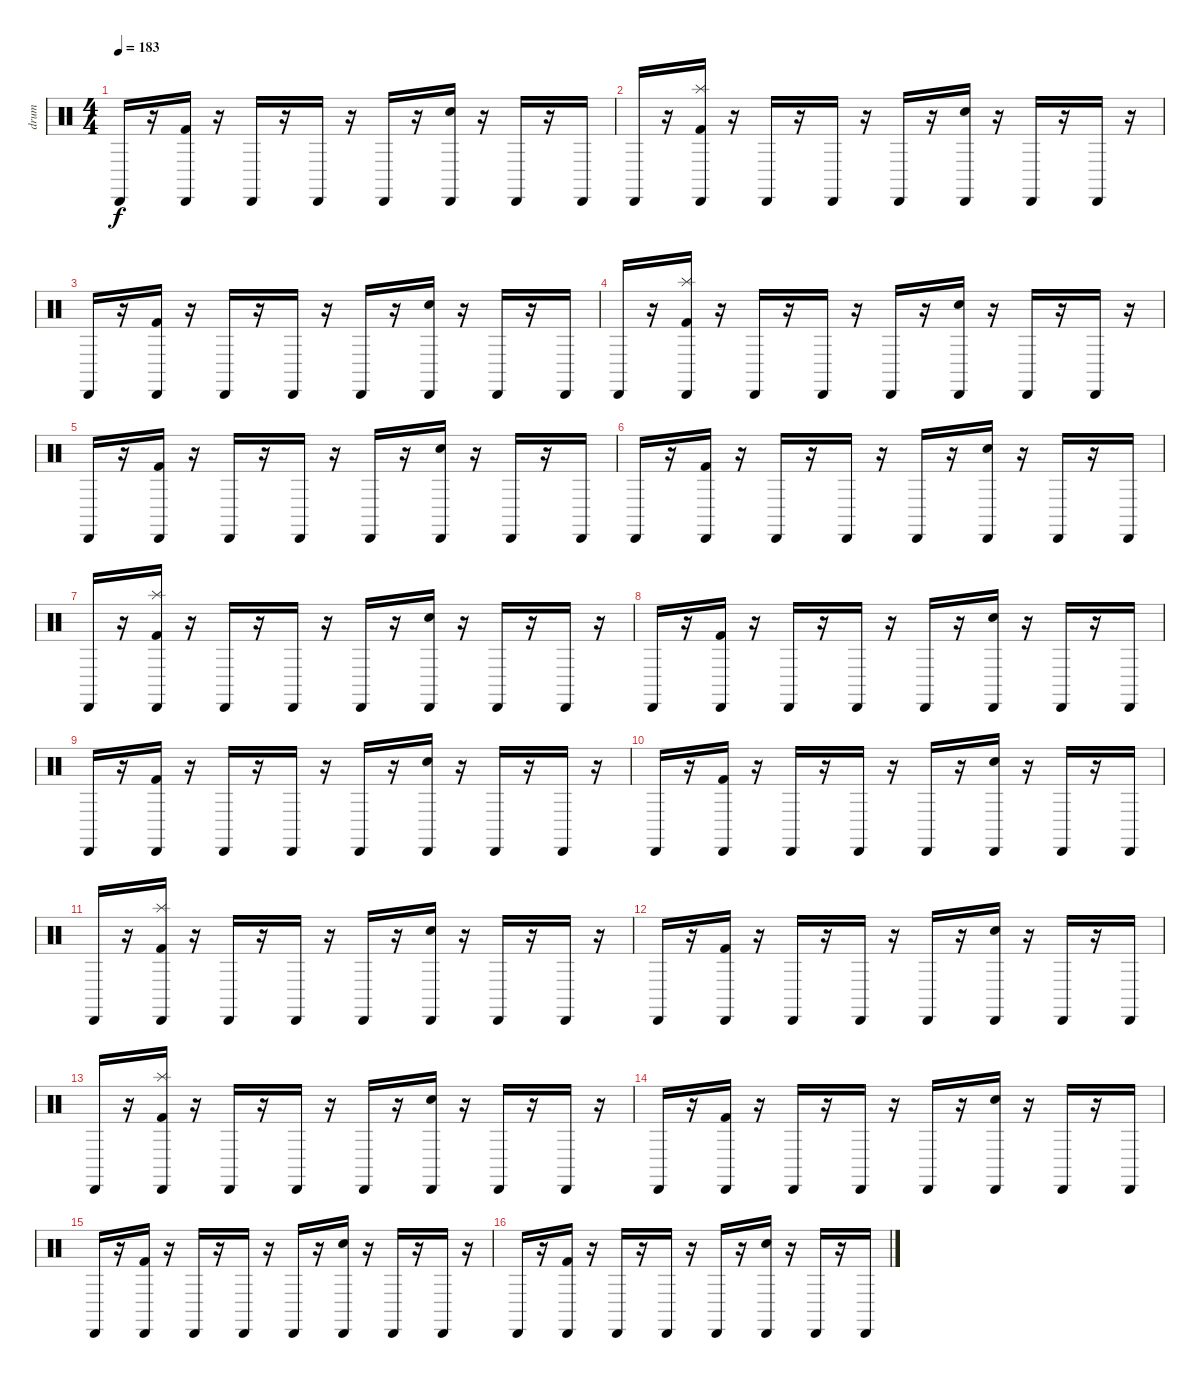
\track ("drum" "drum") {instrument percussion}
\staff {score}
\articulation defaults
\ts (4 4)
\tempo 183
\clef neutral
\ks c "Cabasa (hit)".16{dy f}
r.16 ("Cabasa (hit)" "Kick (hit) 2").16 r.16 "Cabasa (hit)".16 r.16 "Cabasa (hit)".16 r.16 "Cabasa (hit)".16 r.16 ("Cabasa (hit)" "Snare (hit) 2").16 r.16 "Cabasa (hit)".16 r.16 "Cabasa (hit)".16 |
"Cabasa (hit)".16 r.16 ("Cabasa (hit)" "Kick (hit) 2" "Splash (hit)").16 r.16 "Cabasa (hit)".16 r.16 "Cabasa (hit)".16 r.16 "Cabasa (hit)".16 r.16 ("Cabasa (hit)" "Snare (hit) 2").16 r.16 "Cabasa (hit)".16 r.16 "Cabasa (hit)".16 r.16 |
"Cabasa (hit)".16 r.16 ("Cabasa (hit)" "Kick (hit) 2").16 r.16 "Cabasa (hit)".16 r.16 "Cabasa (hit)".16 r.16 "Cabasa (hit)".16 r.16 ("Cabasa (hit)" "Snare (hit) 2").16 r.16 "Cabasa (hit)".16 r.16 "Cabasa (hit)".16 |
"Cabasa (hit)".16 r.16 ("Cabasa (hit)" "Kick (hit) 2" "Splash (hit)").16 r.16 "Cabasa (hit)".16 r.16 "Cabasa (hit)".16 r.16 "Cabasa (hit)".16 r.16 ("Cabasa (hit)" "Snare (hit) 2").16 r.16 "Cabasa (hit)".16 r.16 "Cabasa (hit)".16 r.16 |
"Cabasa (hit)".16 r.16 ("Cabasa (hit)" "Kick (hit) 2").16 r.16 "Cabasa (hit)".16 r.16 "Cabasa (hit)".16 r.16 "Cabasa (hit)".16 r.16 ("Cabasa (hit)" "Snare (hit) 2").16 r.16 "Cabasa (hit)".16 r.16 "Cabasa (hit)".16 |
"Cabasa (hit)".16 r.16 ("Cabasa (hit)" "Kick (hit) 2").16 r.16 "Cabasa (hit)".16 r.16 "Cabasa (hit)".16 r.16 "Cabasa (hit)".16 r.16 ("Cabasa (hit)" "Snare (hit) 2").16 r.16 "Cabasa (hit)".16 r.16 "Cabasa (hit)".16 |
"Cabasa (hit)".16 r.16 ("Cabasa (hit)" "Kick (hit) 2" "Splash (hit)").16 r.16 "Cabasa (hit)".16 r.16 "Cabasa (hit)".16 r.16 "Cabasa (hit)".16 r.16 ("Cabasa (hit)" "Snare (hit) 2").16 r.16 "Cabasa (hit)".16 r.16 "Cabasa (hit)".16 r.16 |
"Cabasa (hit)".16 r.16 ("Cabasa (hit)" "Kick (hit) 2").16 r.16 "Cabasa (hit)".16 r.16 "Cabasa (hit)".16 r.16 "Cabasa (hit)".16 r.16 ("Cabasa (hit)" "Snare (hit) 2").16 r.16 "Cabasa (hit)".16 r.16 "Cabasa (hit)".16 |
"Cabasa (hit)".16 r.16 ("Cabasa (hit)" "Kick (hit) 2").16 r.16 "Cabasa (hit)".16 r.16 "Cabasa (hit)".16 r.16 "Cabasa (hit)".16 r.16 ("Cabasa (hit)" "Snare (hit) 2").16 r.16 "Cabasa (hit)".16 r.16 "Cabasa (hit)".16 r.16 |
"Cabasa (hit)".16 r.16 ("Cabasa (hit)" "Kick (hit) 2").16 r.16 "Cabasa (hit)".16 r.16 "Cabasa (hit)".16 r.16 "Cabasa (hit)".16 r.16 ("Cabasa (hit)" "Snare (hit) 2").16 r.16 "Cabasa (hit)".16 r.16 "Cabasa (hit)".16 |
"Cabasa (hit)".16 r.16 ("Cabasa (hit)" "Kick (hit) 2" "Splash (hit)").16 r.16 "Cabasa (hit)".16 r.16 "Cabasa (hit)".16 r.16 "Cabasa (hit)".16 r.16 ("Cabasa (hit)" "Snare (hit) 2").16 r.16 "Cabasa (hit)".16 r.16 "Cabasa (hit)".16 r.16 |
"Cabasa (hit)".16 r.16 ("Cabasa (hit)" "Kick (hit) 2").16 r.16 "Cabasa (hit)".16 r.16 "Cabasa (hit)".16 r.16 "Cabasa (hit)".16 r.16 ("Cabasa (hit)" "Snare (hit) 2").16 r.16 "Cabasa (hit)".16 r.16 "Cabasa (hit)".16 |
"Cabasa (hit)".16 r.16 ("Cabasa (hit)" "Kick (hit) 2" "Splash (hit)").16 r.16 "Cabasa (hit)".16 r.16 "Cabasa (hit)".16 r.16 "Cabasa (hit)".16 r.16 ("Cabasa (hit)" "Snare (hit) 2").16 r.16 "Cabasa (hit)".16 r.16 "Cabasa (hit)".16 r.16 |
"Cabasa (hit)".16 r.16 ("Cabasa (hit)" "Kick (hit) 2").16 r.16 "Cabasa (hit)".16 r.16 "Cabasa (hit)".16 r.16 "Cabasa (hit)".16 r.16 ("Cabasa (hit)" "Snare (hit) 2").16 r.16 "Cabasa (hit)".16 r.16 "Cabasa (hit)".16 |
"Cabasa (hit)".16 r.16 ("Cabasa (hit)" "Kick (hit) 2").16 r.16 "Cabasa (hit)".16 r.16 "Cabasa (hit)".16 r.16 "Cabasa (hit)".16 r.16 ("Cabasa (hit)" "Snare (hit) 2").16 r.16 "Cabasa (hit)".16 r.16 "Cabasa (hit)".16 r.16 |
"Cabasa (hit)".16 r.16 ("Cabasa (hit)" "Kick (hit) 2").16 r.16 "Cabasa (hit)".16 r.16 "Cabasa (hit)".16 r.16 "Cabasa (hit)".16 r.16 ("Cabasa (hit)" "Snare (hit) 2").16 r.16 "Cabasa (hit)".16 r.16 "Cabasa (hit)".16
